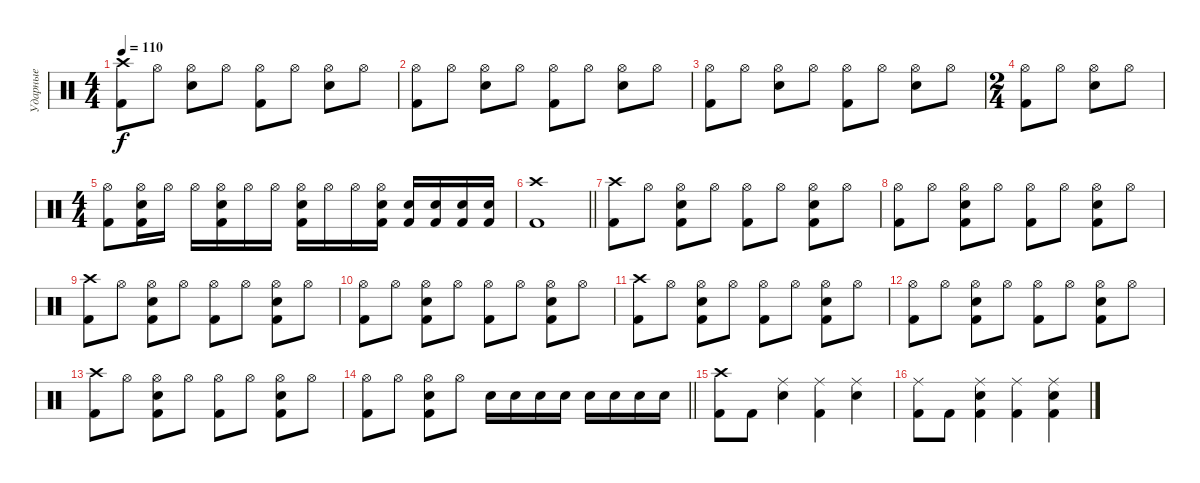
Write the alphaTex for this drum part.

\track ("Ударные" "Ударные") {instrument percussion}
\staff
\articulation defaults
\ts (4 4)
\tempo 110
\clef neutral
\ks c
("Kick (hit) 2" "Crash high (hit)").8{dy f} "Hi-Hat (open)".8 ("Snare (hit) 2" "Hi-Hat (open)").8 "Hi-Hat (open)".8 ("Kick (hit) 2" "Hi-Hat (open)").8 "Hi-Hat (open)".8 ("Snare (hit) 2" "Hi-Hat (open)").8 "Hi-Hat (open)".8 |
("Kick (hit) 2" "Hi-Hat (open)").8 "Hi-Hat (open)".8 ("Snare (hit) 2" "Hi-Hat (open)").8 "Hi-Hat (open)".8 ("Kick (hit) 2" "Hi-Hat (open)").8 "Hi-Hat (open)".8 ("Snare (hit) 2" "Hi-Hat (open)").8 "Hi-Hat (open)".8 |
("Kick (hit) 2" "Hi-Hat (open)").8 "Hi-Hat (open)".8 ("Snare (hit) 2" "Hi-Hat (open)").8 "Hi-Hat (open)".8 ("Kick (hit) 2" "Hi-Hat (open)").8 "Hi-Hat (open)".8 ("Snare (hit) 2" "Hi-Hat (open)").8 "Hi-Hat (open)".8 |
\ts (2 4)
("Kick (hit) 2" "Hi-Hat (open)").8 "Hi-Hat (open)".8 ("Snare (hit) 2" "Hi-Hat (open)").8 "Hi-Hat (open)".8 |
\ts (4 4)
("Kick (hit) 2" "Hi-Hat (open)").8 ("Kick (hit) 2" "Snare (hit) 2" "Hi-Hat (open)").16 "Hi-Hat (open)".16 "Hi-Hat (open)".16 ("Kick (hit) 2" "Snare (hit) 2" "Hi-Hat (open)").16 "Hi-Hat (open)".16 "Hi-Hat (open)".16 ("Kick (hit) 2" "Snare (hit) 2" "Hi-Hat (open)").16 "Hi-Hat (open)".16 "Hi-Hat (open)".16 ("Kick (hit) 2" "Snare (hit) 2" "Hi-Hat (open)").16 ("Kick (hit) 2" "Snare (hit) 2").16 ("Kick (hit) 2" "Snare (hit) 2").16 ("Kick (hit) 2" "Snare (hit) 2").16 ("Kick (hit) 2" "Snare (hit) 2").16 |
\barLineRight lightlight
("Kick (hit) 2" "Crash high (hit)").1 |
("Kick (hit) 2" "Crash high (hit)").8 "Hi-Hat (open)".8 ("Kick (hit) 2" "Snare (hit) 2" "Hi-Hat (open)").8 "Hi-Hat (open)".8 ("Kick (hit) 2" "Hi-Hat (open)").8 "Hi-Hat (open)".8 ("Kick (hit) 2" "Snare (hit) 2" "Hi-Hat (open)").8 "Hi-Hat (open)".8 |
("Kick (hit) 2" "Hi-Hat (open)").8 "Hi-Hat (open)".8 ("Kick (hit) 2" "Snare (hit) 2" "Hi-Hat (open)").8 "Hi-Hat (open)".8 ("Kick (hit) 2" "Hi-Hat (open)").8 "Hi-Hat (open)".8 ("Kick (hit) 2" "Snare (hit) 2" "Hi-Hat (open)").8 "Hi-Hat (open)".8 |
("Kick (hit) 2" "Crash high (hit)").8 "Hi-Hat (open)".8 ("Kick (hit) 2" "Snare (hit) 2" "Hi-Hat (open)").8 "Hi-Hat (open)".8 ("Kick (hit) 2" "Hi-Hat (open)").8 "Hi-Hat (open)".8 ("Kick (hit) 2" "Snare (hit) 2" "Hi-Hat (open)").8 "Hi-Hat (open)".8 |
("Kick (hit) 2" "Hi-Hat (open)").8 "Hi-Hat (open)".8 ("Kick (hit) 2" "Snare (hit) 2" "Hi-Hat (open)").8 "Hi-Hat (open)".8 ("Kick (hit) 2" "Hi-Hat (open)").8 "Hi-Hat (open)".8 ("Kick (hit) 2" "Snare (hit) 2" "Hi-Hat (open)").8 "Hi-Hat (open)".8 |
("Kick (hit) 2" "Crash high (hit)").8 "Hi-Hat (open)".8 ("Kick (hit) 2" "Snare (hit) 2" "Hi-Hat (open)").8 "Hi-Hat (open)".8 ("Kick (hit) 2" "Hi-Hat (open)").8 "Hi-Hat (open)".8 ("Kick (hit) 2" "Snare (hit) 2" "Hi-Hat (open)").8 "Hi-Hat (open)".8 |
("Kick (hit) 2" "Hi-Hat (open)").8 "Hi-Hat (open)".8 ("Kick (hit) 2" "Snare (hit) 2" "Hi-Hat (open)").8 "Hi-Hat (open)".8 ("Kick (hit) 2" "Hi-Hat (open)").8 "Hi-Hat (open)".8 ("Kick (hit) 2" "Snare (hit) 2" "Hi-Hat (open)").8 "Hi-Hat (open)".8 |
("Kick (hit) 2" "Crash high (hit)").8 "Hi-Hat (open)".8 ("Kick (hit) 2" "Snare (hit) 2" "Hi-Hat (open)").8 "Hi-Hat (open)".8 ("Kick (hit) 2" "Hi-Hat (open)").8 "Hi-Hat (open)".8 ("Kick (hit) 2" "Snare (hit) 2" "Hi-Hat (open)").8 "Hi-Hat (open)".8 |
\barLineRight lightlight
("Kick (hit) 2" "Hi-Hat (open)").8 "Hi-Hat (open)".8 ("Kick (hit) 2" "Snare (hit) 2" "Hi-Hat (open)").8 "Hi-Hat (open)".8 "Snare (hit) 2".16 "Snare (hit) 2".16 "Snare (hit) 2".16 "Snare (hit) 2".16 "Snare (hit) 2".16 "Snare (hit) 2".16 "Snare (hit) 2".16 "Snare (hit) 2".16 |
("Kick (hit) 2" "Crash high (hit)").8 "Kick (hit) 2".8 ("Snare (hit) 2" "Ride (middle)").4 ("Kick (hit) 2" "Ride (middle)").4 ("Snare (hit) 2" "Ride (middle)").4 |
("Kick (hit) 2" "Ride (middle)").8 "Kick (hit) 2".8 ("Kick (hit) 2" "Snare (hit) 2" "Ride (middle)").4 ("Kick (hit) 2" "Ride (middle)").4 ("Kick (hit) 2" "Snare (hit) 2" "Ride (middle)").4
